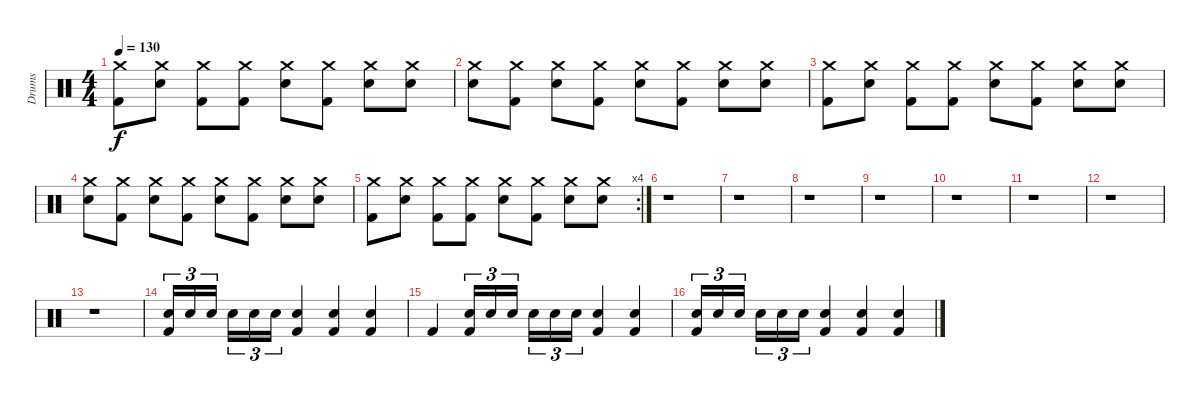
\track ("Drums" "Drums") {instrument percussion}
\staff {score}
\articulation defaults
\ts (4 4)
\tempo 130
\clef neutral
\ks c
("Crash medium (hit)" "Kick (hit) 2").8{dy f} ("Crash medium (hit)" "Snare (hit) 2").8 ("Crash medium (hit)" "Kick (hit) 2").8 ("Crash medium (hit)" "Kick (hit) 2").8 ("Crash medium (hit)" "Snare (hit) 2").8 ("Crash medium (hit)" "Kick (hit) 2").8 ("Crash medium (hit)" "Snare (hit) 2").8 ("Crash medium (hit)" "Snare (hit) 2").8 |
("Crash medium (hit)" "Snare (hit) 2").8 ("Crash medium (hit)" "Kick (hit) 2").8 ("Crash medium (hit)" "Snare (hit) 2").8 ("Crash medium (hit)" "Kick (hit) 2").8 ("Crash medium (hit)" "Snare (hit) 2").8 ("Crash medium (hit)" "Kick (hit) 2").8 ("Crash medium (hit)" "Snare (hit) 2").8 ("Crash medium (hit)" "Snare (hit) 2").8 |
("Crash medium (hit)" "Kick (hit) 2").8 ("Crash medium (hit)" "Snare (hit) 2").8 ("Crash medium (hit)" "Kick (hit) 2").8 ("Crash medium (hit)" "Kick (hit) 2").8 ("Crash medium (hit)" "Snare (hit) 2").8 ("Crash medium (hit)" "Kick (hit) 2").8 ("Crash medium (hit)" "Snare (hit) 2").8 ("Crash medium (hit)" "Snare (hit) 2").8 |
("Crash medium (hit)" "Snare (hit) 2").8 ("Crash medium (hit)" "Kick (hit) 2").8 ("Crash medium (hit)" "Snare (hit) 2").8 ("Crash medium (hit)" "Kick (hit) 2").8 ("Crash medium (hit)" "Snare (hit) 2").8 ("Crash medium (hit)" "Kick (hit) 2").8 ("Crash medium (hit)" "Snare (hit) 2").8 ("Crash medium (hit)" "Snare (hit) 2").8 |
\rc 4
("Crash medium (hit)" "Kick (hit) 2").8 ("Crash medium (hit)" "Snare (hit) 2").8 ("Crash medium (hit)" "Kick (hit) 2").8 ("Crash medium (hit)" "Kick (hit) 2").8 ("Crash medium (hit)" "Snare (hit) 2").8 ("Crash medium (hit)" "Kick (hit) 2").8 ("Crash medium (hit)" "Snare (hit) 2").8 ("Crash medium (hit)" "Snare (hit) 2").8 |
r.1 |
r.1 |
r.1 |
r.1 |
r.1 |
r.1 |
r.1 |
r.1 |
("Snare (hit) 2" "Kick (hit) 2").16{tu (3 2)} "Snare (hit) 2".16{tu (3 2)} "Snare (hit) 2".16{tu (3 2)} "Snare (hit) 2".16{tu (3 2)} "Snare (hit) 2".16{tu (3 2)} "Snare (hit) 2".16{tu (3 2)} ("Snare (hit) 2" "Kick (hit) 2").4 ("Snare (hit) 2" "Kick (hit) 2").4 ("Snare (hit) 2" "Kick (hit) 2").4 |
"Kick (hit) 2".4 ("Snare (hit) 2" "Kick (hit) 2").16{tu (3 2)} "Snare (hit) 2".16{tu (3 2)} "Snare (hit) 2".16{tu (3 2)} "Snare (hit) 2".16{tu (3 2)} "Snare (hit) 2".16{tu (3 2)} "Snare (hit) 2".16{tu (3 2)} ("Snare (hit) 2" "Kick (hit) 2").4 ("Snare (hit) 2" "Kick (hit) 2").4 |
("Snare (hit) 2" "Kick (hit) 2").16{tu (3 2)} "Snare (hit) 2".16{tu (3 2)} "Snare (hit) 2".16{tu (3 2)} "Snare (hit) 2".16{tu (3 2)} "Snare (hit) 2".16{tu (3 2)} "Snare (hit) 2".16{tu (3 2)} ("Snare (hit) 2" "Kick (hit) 2").4 ("Snare (hit) 2" "Kick (hit) 2").4 ("Snare (hit) 2" "Kick (hit) 2").4
